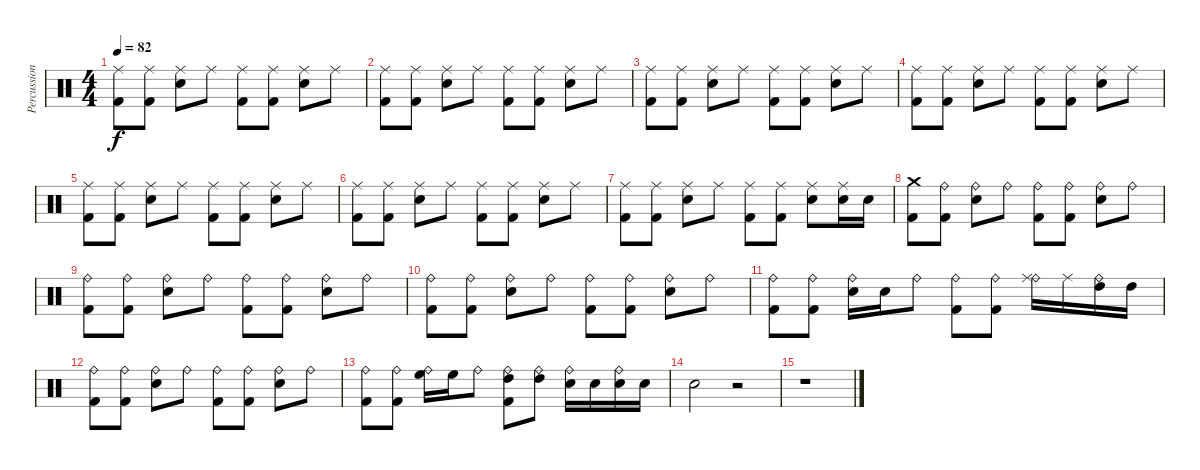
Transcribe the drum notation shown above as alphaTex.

\track ("Percussions" "Percussion") {instrument percussion}
\staff
\articulation defaults
\ts (4 4)
\tempo 82
\clef neutral
\ks c
("Ride (middle)" "Kick (hit) 2").8{dy f} ("Ride (middle)" "Kick (hit) 2").8 ("Ride (middle)" "Electric Snare (hit)").8 "Ride (middle)".8 ("Ride (middle)" "Kick (hit) 2").8 ("Ride (middle)" "Kick (hit) 2").8 ("Ride (middle)" "Electric Snare (hit)").8 "Ride (middle)".8 |
("Ride (middle)" "Kick (hit) 2").8 ("Ride (middle)" "Kick (hit) 2").8 ("Ride (middle)" "Electric Snare (hit)").8 "Ride (middle)".8 ("Ride (middle)" "Kick (hit) 2").8 ("Ride (middle)" "Kick (hit) 2").8 ("Ride (middle)" "Electric Snare (hit)").8 "Ride (middle)".8 |
("Ride (middle)" "Kick (hit) 2").8 ("Ride (middle)" "Kick (hit) 2").8 ("Ride (middle)" "Electric Snare (hit)").8 "Ride (middle)".8 ("Ride (middle)" "Kick (hit) 2").8 ("Ride (middle)" "Kick (hit) 2").8 ("Ride (middle)" "Electric Snare (hit)").8 "Ride (middle)".8 |
("Ride (middle)" "Kick (hit) 2").8 ("Ride (middle)" "Kick (hit) 2").8 ("Ride (middle)" "Electric Snare (hit)").8 "Ride (middle)".8 ("Ride (middle)" "Kick (hit) 2").8 ("Ride (middle)" "Kick (hit) 2").8 ("Ride (middle)" "Electric Snare (hit)").8 "Ride (middle)".8 |
("Ride (middle)" "Kick (hit) 2").8 ("Ride (middle)" "Kick (hit) 2").8 ("Ride (middle)" "Electric Snare (hit)").8 "Ride (middle)".8 ("Ride (middle)" "Kick (hit) 2").8 ("Ride (middle)" "Kick (hit) 2").8 ("Ride (middle)" "Electric Snare (hit)").8 "Ride (middle)".8 |
("Ride (middle)" "Kick (hit) 2").8 ("Ride (middle)" "Kick (hit) 2").8 ("Ride (middle)" "Electric Snare (hit)").8 "Ride (middle)".8 ("Ride (middle)" "Kick (hit) 2").8 ("Ride (middle)" "Kick (hit) 2").8 ("Ride (middle)" "Electric Snare (hit)").8 "Ride (middle)".8 |
("Ride (middle)" "Kick (hit) 2").8 ("Ride (middle)" "Kick (hit) 2").8 ("Ride (middle)" "Electric Snare (hit)").8 "Ride (middle)".8 ("Ride (middle)" "Kick (hit) 2").8 ("Ride (middle)" "Kick (hit) 2").8 ("Ride (middle)" "Electric Snare (hit)").8 ("Ride (middle)" "Electric Snare (hit)").16 "Electric Snare (hit)".16 |
("Crash medium (hit)" "Kick (hit) 2").8 ("Ride (bell)" "Kick (hit) 2").8 ("Ride (bell)" "Electric Snare (hit)").8 "Ride (bell)".8 ("Ride (bell)" "Kick (hit) 2").8 ("Ride (bell)" "Kick (hit) 2").8 ("Ride (bell)" "Electric Snare (hit)").8 "Ride (bell)".8 |
("Ride (bell)" "Kick (hit) 2").8 ("Ride (bell)" "Kick (hit) 2").8 ("Ride (bell)" "Electric Snare (hit)").8 "Ride (bell)".8 ("Ride (bell)" "Kick (hit) 2").8 ("Ride (bell)" "Kick (hit) 2").8 ("Ride (bell)" "Electric Snare (hit)").8 "Ride (bell)".8 |
("Ride (bell)" "Kick (hit) 2").8 ("Ride (bell)" "Kick (hit) 2").8 ("Ride (bell)" "Electric Snare (hit)").8 "Ride (bell)".8 ("Ride (bell)" "Kick (hit) 2").8 ("Ride (bell)" "Kick (hit) 2").8 ("Ride (bell)" "Electric Snare (hit)").8 "Ride (bell)".8 |
("Ride (bell)" "Kick (hit) 2").8 ("Ride (bell)" "Kick (hit) 2").8 ("Ride (bell)" "Electric Snare (hit)").16 "Electric Snare (hit)".16 "Ride (bell)".8 ("Ride (bell)" "Kick (hit) 2").8 ("Ride (bell)" "Kick (hit) 2").8 ("Ride (bell)" "Ride (middle)").16 "Ride (middle)".16 ("Ride (bell)" "High Tom (hit)").16 "High Tom (hit)".16 |
("Ride (bell)" "Kick (hit) 2").8 ("Ride (bell)" "Kick (hit) 2").8 ("Ride (bell)" "Electric Snare (hit)").8 "Ride (bell)".8 ("Ride (bell)" "Kick (hit) 2").8 ("Ride (bell)" "Kick (hit) 2").8 ("Ride (bell)" "Electric Snare (hit)").8 "Ride (bell)".8 |
("Ride (bell)" "Kick (hit) 2").8 ("Ride (bell)" "Kick (hit) 2").8 ("Ride (bell)" "High Floor Tom (hit)").16 "High Floor Tom (hit)".16 "Ride (bell)".8 ("Ride (bell)" "High Tom (hit)" "Kick (hit) 2").8 ("Ride (bell)" "High Tom (hit)").8 ("Ride (bell)" "Electric Snare (hit)").16 "Electric Snare (hit)".16 ("Ride (bell)" "Electric Snare (hit)").16 "Electric Snare (hit)".16 |
"Electric Snare (hit)".2 r.2 |
r.1
